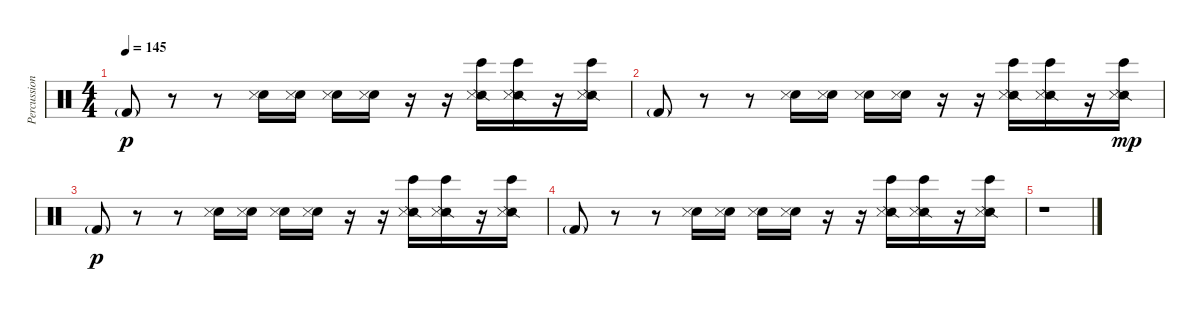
\track ("Percussions" "Percussion") {instrument percussion}
\staff {score}
\articulation defaults
\ts (4 4)
\tempo 145
\clef neutral
\ks c "Kick (hit) 2"{g}.8{dy p}
r.8 r.8 ("Snare (hit) 2" "Snare (side stick) 3").16 ("Snare (hit) 2" "Snare (side stick) 3").16 ("Snare (hit) 2" "Snare (side stick) 3").16 ("Snare (hit) 2" "Snare (side stick) 3").16 r.16 r.16 ("Snare (side stick) 2" "Bongo High (hit)" "Metronome (hit)").16 ("Snare (side stick) 2" "Bongo High (hit)" "Metronome (hit)").16 r.16 ("Snare (side stick) 2" "Bongo High (hit)" "Metronome (hit)").16 |
"Kick (hit) 2"{g}.8 r.8 r.8 ("Snare (hit) 2" "Snare (side stick) 3").16 ("Snare (hit) 2" "Snare (side stick) 3").16 ("Snare (hit) 2" "Snare (side stick) 3").16 ("Snare (hit) 2" "Snare (side stick) 3").16 r.16 r.16 ("Snare (side stick) 2" "Bongo High (hit)" "Metronome (hit)").16 ("Snare (side stick) 2" "Bongo High (hit)" "Metronome (hit)").16 r.16 ("Snare (side stick) 2" "Bongo High (hit)" "Metronome (hit)").16{dy mp} |
"Kick (hit) 2"{g}.8{dy p} r.8 r.8 ("Snare (hit) 2" "Snare (side stick) 3").16 ("Snare (hit) 2" "Snare (side stick) 3").16 ("Snare (hit) 2" "Snare (side stick) 3").16 ("Snare (hit) 2" "Snare (side stick) 3").16 r.16 r.16 ("Snare (side stick) 2" "Bongo High (hit)" "Metronome (hit)").16 ("Snare (side stick) 2" "Bongo High (hit)" "Metronome (hit)").16 r.16 ("Snare (side stick) 2" "Bongo High (hit)" "Metronome (hit)").16 |
"Kick (hit) 2"{g}.8 r.8 r.8 ("Snare (hit) 2" "Snare (side stick) 3").16 ("Snare (hit) 2" "Snare (side stick) 3").16 ("Snare (hit) 2" "Snare (side stick) 3").16 ("Snare (hit) 2" "Snare (side stick) 3").16 r.16 r.16 ("Snare (side stick) 2" "Bongo High (hit)" "Metronome (hit)").16 ("Snare (side stick) 2" "Bongo High (hit)" "Metronome (hit)").16 r.16 ("Snare (side stick) 2" "Bongo High (hit)" "Metronome (hit)").16 |
r.1
